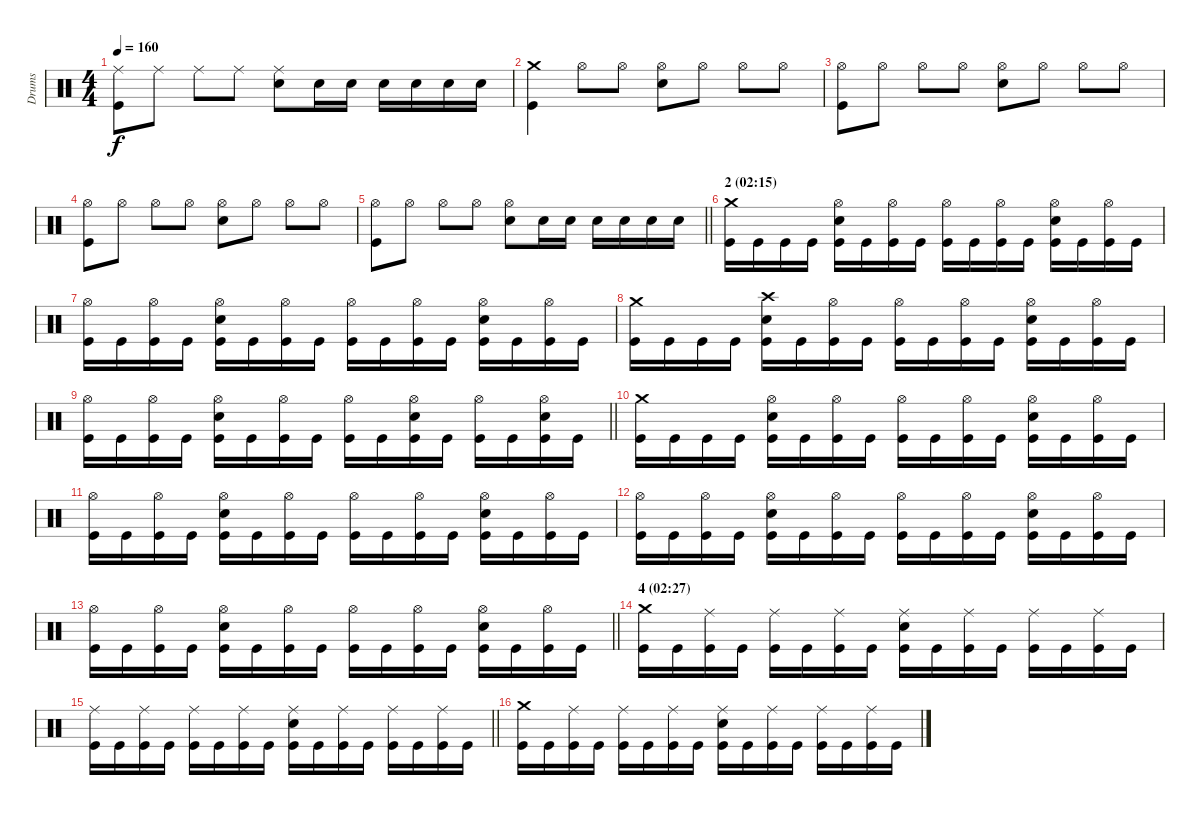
\track ("Drums" "Drums") {instrument percussion}
\staff {score}
\articulation defaults
\ts (4 4)
\tempo 160
\clef neutral
\ks c
("Ride (middle)" "Kick (hit)").8{dy f} "Ride (middle)".8 "Ride (middle)".8 "Ride (middle)".8 ("Ride (middle)" "Electric Snare (hit)").8 "Electric Snare (hit)".16 "Electric Snare (hit)".16 "Electric Snare (hit)".16 "Electric Snare (hit)".16 "Electric Snare (hit)".16 "Electric Snare (hit)".16 |
("Crash medium (hit)" "Kick (hit)").4 "Hi-Hat (open)".8 "Hi-Hat (open)".8 ("Hi-Hat (open)" "Electric Snare (hit)").8 "Hi-Hat (open)".8 "Hi-Hat (open)".8 "Hi-Hat (open)".8 |
("Hi-Hat (open)" "Kick (hit)").8 "Hi-Hat (open)".8 "Hi-Hat (open)".8 "Hi-Hat (open)".8 ("Hi-Hat (open)" "Electric Snare (hit)").8 "Hi-Hat (open)".8 "Hi-Hat (open)".8 "Hi-Hat (open)".8 |
("Hi-Hat (open)" "Kick (hit)").8 "Hi-Hat (open)".8 "Hi-Hat (open)".8 "Hi-Hat (open)".8 ("Hi-Hat (open)" "Electric Snare (hit)").8 "Hi-Hat (open)".8 "Hi-Hat (open)".8 "Hi-Hat (open)".8 |
\barLineRight lightlight
("Hi-Hat (open)" "Kick (hit)").8 "Hi-Hat (open)".8 "Hi-Hat (open)".8 "Hi-Hat (open)".8 ("Hi-Hat (open)" "Electric Snare (hit)").8 "Electric Snare (hit)".16 "Electric Snare (hit)".16 "Electric Snare (hit)".16 "Electric Snare (hit)".16 "Electric Snare (hit)".16 "Electric Snare (hit)".16 |
\section ("" "2 (02:15)")
("Crash medium (hit)" "Kick (hit)").16 "Kick (hit)".16 "Kick (hit)".16 "Kick (hit)".16 ("Hi-Hat (open)" "Electric Snare (hit)" "Kick (hit)").16 "Kick (hit)".16 ("Hi-Hat (open)" "Kick (hit)").16 "Kick (hit)".16 ("Hi-Hat (open)" "Kick (hit)").16 "Kick (hit)".16 ("Hi-Hat (open)" "Kick (hit)").16 "Kick (hit)".16 ("Hi-Hat (open)" "Electric Snare (hit)" "Kick (hit)").16 "Kick (hit)".16 ("Hi-Hat (open)" "Kick (hit)").16 "Kick (hit)".16 |
("Hi-Hat (open)" "Kick (hit)").16 "Kick (hit)".16 ("Hi-Hat (open)" "Kick (hit)").16 "Kick (hit)".16 ("Hi-Hat (open)" "Electric Snare (hit)" "Kick (hit)").16 "Kick (hit)".16 ("Hi-Hat (open)" "Kick (hit)").16 "Kick (hit)".16 ("Hi-Hat (open)" "Kick (hit)").16 "Kick (hit)".16 ("Hi-Hat (open)" "Kick (hit)").16 "Kick (hit)".16 ("Hi-Hat (open)" "Electric Snare (hit)" "Kick (hit)").16 "Kick (hit)".16 ("Hi-Hat (open)" "Kick (hit)").16 "Kick (hit)".16 |
("Crash medium (hit)" "Kick (hit)").16 "Kick (hit)".16 "Kick (hit)".16 "Kick (hit)".16 ("Crash high (hit)" "Electric Snare (hit)" "Kick (hit)").16 "Kick (hit)".16 ("Hi-Hat (open)" "Kick (hit)").16 "Kick (hit)".16 ("Hi-Hat (open)" "Kick (hit)").16 "Kick (hit)".16 ("Hi-Hat (open)" "Kick (hit)").16 "Kick (hit)".16 ("Hi-Hat (open)" "Electric Snare (hit)" "Kick (hit)").16 "Kick (hit)".16 ("Hi-Hat (open)" "Kick (hit)").16 "Kick (hit)".16 |
\barLineRight lightlight
("Hi-Hat (open)" "Kick (hit)").16 "Kick (hit)".16 ("Hi-Hat (open)" "Kick (hit)").16 "Kick (hit)".16 ("Hi-Hat (open)" "Electric Snare (hit)" "Kick (hit)").16 "Kick (hit)".16 ("Hi-Hat (open)" "Kick (hit)").16 "Kick (hit)".16 ("Hi-Hat (open)" "Kick (hit)").16 "Kick (hit)".16 ("Hi-Hat (open)" "Electric Snare (hit)" "Kick (hit)").16 "Kick (hit)".16 ("Hi-Hat (open)" "Kick (hit)").16 "Kick (hit)".16 ("Hi-Hat (open)" "Electric Snare (hit)" "Kick (hit)").16 "Kick (hit)".16 |
("Crash medium (hit)" "Kick (hit)").16 "Kick (hit)".16 "Kick (hit)".16 "Kick (hit)".16 ("Hi-Hat (open)" "Electric Snare (hit)" "Kick (hit)").16 "Kick (hit)".16 ("Hi-Hat (open)" "Kick (hit)").16 "Kick (hit)".16 ("Hi-Hat (open)" "Kick (hit)").16 "Kick (hit)".16 ("Hi-Hat (open)" "Kick (hit)").16 "Kick (hit)".16 ("Hi-Hat (open)" "Electric Snare (hit)" "Kick (hit)").16 "Kick (hit)".16 ("Hi-Hat (open)" "Kick (hit)").16 "Kick (hit)".16 |
("Hi-Hat (open)" "Kick (hit)").16 "Kick (hit)".16 ("Hi-Hat (open)" "Kick (hit)").16 "Kick (hit)".16 ("Hi-Hat (open)" "Electric Snare (hit)" "Kick (hit)").16 "Kick (hit)".16 ("Hi-Hat (open)" "Kick (hit)").16 "Kick (hit)".16 ("Hi-Hat (open)" "Kick (hit)").16 "Kick (hit)".16 ("Hi-Hat (open)" "Kick (hit)").16 "Kick (hit)".16 ("Hi-Hat (open)" "Electric Snare (hit)" "Kick (hit)").16 "Kick (hit)".16 ("Hi-Hat (open)" "Kick (hit)").16 "Kick (hit)".16 |
("Hi-Hat (open)" "Kick (hit)").16 "Kick (hit)".16 ("Hi-Hat (open)" "Kick (hit)").16 "Kick (hit)".16 ("Hi-Hat (open)" "Electric Snare (hit)" "Kick (hit)").16 "Kick (hit)".16 ("Hi-Hat (open)" "Kick (hit)").16 "Kick (hit)".16 ("Hi-Hat (open)" "Kick (hit)").16 "Kick (hit)".16 ("Hi-Hat (open)" "Kick (hit)").16 "Kick (hit)".16 ("Hi-Hat (open)" "Electric Snare (hit)" "Kick (hit)").16 "Kick (hit)".16 ("Hi-Hat (open)" "Kick (hit)").16 "Kick (hit)".16 |
\barLineRight lightlight
("Hi-Hat (open)" "Kick (hit)").16 "Kick (hit)".16 ("Hi-Hat (open)" "Kick (hit)").16 "Kick (hit)".16 ("Hi-Hat (open)" "Electric Snare (hit)" "Kick (hit)").16 "Kick (hit)".16 ("Hi-Hat (open)" "Kick (hit)").16 "Kick (hit)".16 ("Hi-Hat (open)" "Kick (hit)").16 "Kick (hit)".16 ("Hi-Hat (open)" "Kick (hit)").16 "Kick (hit)".16 ("Hi-Hat (open)" "Electric Snare (hit)" "Kick (hit)").16 "Kick (hit)".16 ("Hi-Hat (open)" "Kick (hit)").16 "Kick (hit)".16 |
\section ("" "4 (02:27)")
("Crash medium (hit)" "Kick (hit)").16 "Kick (hit)".16 ("Ride (middle)" "Kick (hit)").16 "Kick (hit)".16 ("Ride (middle)" "Kick (hit)").16 "Kick (hit)".16 ("Ride (middle)" "Kick (hit)").16 "Kick (hit)".16 ("Ride (middle)" "Electric Snare (hit)" "Kick (hit)").16 "Kick (hit)".16 ("Ride (middle)" "Kick (hit)").16 "Kick (hit)".16 ("Ride (middle)" "Kick (hit)").16 "Kick (hit)".16 ("Ride (middle)" "Kick (hit)").16 "Kick (hit)".16 |
\barLineRight lightlight
("Ride (middle)" "Kick (hit)").16 "Kick (hit)".16 ("Ride (middle)" "Kick (hit)").16 "Kick (hit)".16 ("Ride (middle)" "Kick (hit)").16 "Kick (hit)".16 ("Ride (middle)" "Kick (hit)").16 "Kick (hit)".16 ("Ride (middle)" "Electric Snare (hit)" "Kick (hit)").16 "Kick (hit)".16 ("Ride (middle)" "Kick (hit)").16 "Kick (hit)".16 ("Ride (middle)" "Kick (hit)").16 "Kick (hit)".16 ("Ride (middle)" "Kick (hit)").16 "Kick (hit)".16 |
("Crash medium (hit)" "Kick (hit)").16 "Kick (hit)".16 ("Ride (middle)" "Kick (hit)").16 "Kick (hit)".16 ("Ride (middle)" "Kick (hit)").16 "Kick (hit)".16 ("Ride (middle)" "Kick (hit)").16 "Kick (hit)".16 ("Ride (middle)" "Electric Snare (hit)" "Kick (hit)").16 "Kick (hit)".16 ("Ride (middle)" "Kick (hit)").16 "Kick (hit)".16 ("Ride (middle)" "Kick (hit)").16 "Kick (hit)".16 ("Ride (middle)" "Kick (hit)").16 "Kick (hit)".16
